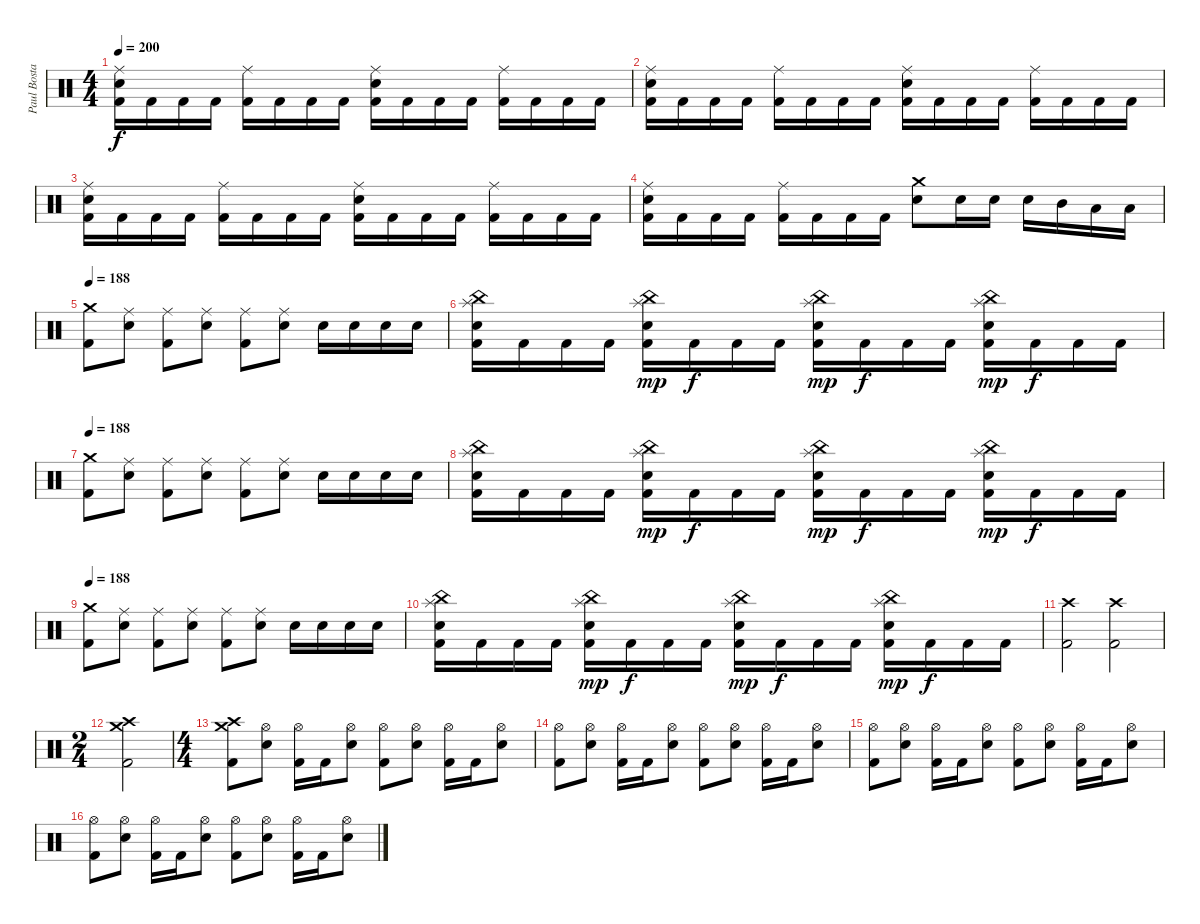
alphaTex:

\track ("Paul Bostaph" "Paul Bosta") {instrument percussion}
\staff {score}
\articulation defaults
\ts (4 4)
\tempo 200
\clef neutral
\ks c
("Electric Snare (hit)" "Kick (hit) 2" "Ride (middle)").16{dy f} "Kick (hit) 2".16 "Kick (hit) 2".16 "Kick (hit) 2".16 ("Kick (hit) 2" "Ride (middle)").16 "Kick (hit) 2".16 "Kick (hit) 2".16 "Kick (hit) 2".16 ("Electric Snare (hit)" "Kick (hit) 2" "Ride (middle)").16 "Kick (hit) 2".16 "Kick (hit) 2".16 "Kick (hit) 2".16 ("Kick (hit) 2" "Ride (middle)").16 "Kick (hit) 2".16 "Kick (hit) 2".16 "Kick (hit) 2".16 |
("Electric Snare (hit)" "Kick (hit) 2" "Ride (middle)").16 "Kick (hit) 2".16 "Kick (hit) 2".16 "Kick (hit) 2".16 ("Kick (hit) 2" "Ride (middle)").16 "Kick (hit) 2".16 "Kick (hit) 2".16 "Kick (hit) 2".16 ("Electric Snare (hit)" "Kick (hit) 2" "Ride (middle)").16 "Kick (hit) 2".16 "Kick (hit) 2".16 "Kick (hit) 2".16 ("Kick (hit) 2" "Ride (middle)").16 "Kick (hit) 2".16 "Kick (hit) 2".16 "Kick (hit) 2".16 |
("Electric Snare (hit)" "Kick (hit) 2" "Ride (middle)").16 "Kick (hit) 2".16 "Kick (hit) 2".16 "Kick (hit) 2".16 ("Kick (hit) 2" "Ride (middle)").16 "Kick (hit) 2".16 "Kick (hit) 2".16 "Kick (hit) 2".16 ("Electric Snare (hit)" "Kick (hit) 2" "Ride (middle)").16 "Kick (hit) 2".16 "Kick (hit) 2".16 "Kick (hit) 2".16 ("Kick (hit) 2" "Ride (middle)").16 "Kick (hit) 2".16 "Kick (hit) 2".16 "Kick (hit) 2".16 |
("Electric Snare (hit)" "Kick (hit) 2" "Ride (middle)").16 "Kick (hit) 2".16 "Kick (hit) 2".16 "Kick (hit) 2".16 ("Kick (hit) 2" "Ride (middle)").16 "Kick (hit) 2".16 "Kick (hit) 2".16 "Kick (hit) 2".16 ("Electric Snare (hit)" "Crash medium (hit)").8 "Electric Snare (hit)".16 "Electric Snare (hit)".16 "Electric Snare (hit)".16 "Mid Tom (hit)".16 "Low Tom (hit)".16 "Low Tom (hit)".16 |
\tempo 188
("Crash medium (hit)" "Kick (hit) 2").8 ("Ride (middle)" "Electric Snare (hit)").8 ("Ride (middle)" "Kick (hit) 2").8 ("Ride (middle)" "Electric Snare (hit)").8 ("Ride (middle)" "Kick (hit) 2").8 ("Ride (middle)" "Electric Snare (hit)").8 "Electric Snare (hit)".16 "Electric Snare (hit)".16 "Electric Snare (hit)".16 "Electric Snare (hit)".16 |
("Electric Snare (hit)" "Kick (hit) 2" "Splash (hit)" "China (hit)").16 "Kick (hit) 2".16 "Kick (hit) 2".16 "Kick (hit) 2".16 ("Kick (hit) 2" "Electric Snare (hit)" "Splash (hit)" "China (hit)").16{dy mp} "Kick (hit) 2".16{dy f} "Kick (hit) 2".16 "Kick (hit) 2".16 ("Electric Snare (hit)" "Kick (hit) 2" "Splash (hit)" "China (hit)").16{dy mp} "Kick (hit) 2".16{dy f} "Kick (hit) 2".16 "Kick (hit) 2".16 ("Kick (hit) 2" "Electric Snare (hit)" "Splash (hit)" "China (hit)").16{dy mp} "Kick (hit) 2".16{dy f} "Kick (hit) 2".16 "Kick (hit) 2".16 |
\tempo 188
("Crash medium (hit)" "Kick (hit) 2").8 ("Ride (middle)" "Electric Snare (hit)").8 ("Ride (middle)" "Kick (hit) 2").8 ("Ride (middle)" "Electric Snare (hit)").8 ("Ride (middle)" "Kick (hit) 2").8 ("Ride (middle)" "Electric Snare (hit)").8 "Electric Snare (hit)".16 "Electric Snare (hit)".16 "Electric Snare (hit)".16 "Electric Snare (hit)".16 |
("Electric Snare (hit)" "Kick (hit) 2" "Splash (hit)" "China (hit)").16 "Kick (hit) 2".16 "Kick (hit) 2".16 "Kick (hit) 2".16 ("Kick (hit) 2" "Electric Snare (hit)" "Splash (hit)" "China (hit)").16{dy mp} "Kick (hit) 2".16{dy f} "Kick (hit) 2".16 "Kick (hit) 2".16 ("Electric Snare (hit)" "Kick (hit) 2" "Splash (hit)" "China (hit)").16{dy mp} "Kick (hit) 2".16{dy f} "Kick (hit) 2".16 "Kick (hit) 2".16 ("Kick (hit) 2" "Electric Snare (hit)" "Splash (hit)" "China (hit)").16{dy mp} "Kick (hit) 2".16{dy f} "Kick (hit) 2".16 "Kick (hit) 2".16 |
\tempo 188
("Crash medium (hit)" "Kick (hit) 2").8 ("Ride (middle)" "Electric Snare (hit)").8 ("Ride (middle)" "Kick (hit) 2").8 ("Ride (middle)" "Electric Snare (hit)").8 ("Ride (middle)" "Kick (hit) 2").8 ("Ride (middle)" "Electric Snare (hit)").8 "Electric Snare (hit)".16 "Electric Snare (hit)".16 "Electric Snare (hit)".16 "Electric Snare (hit)".16 |
("Electric Snare (hit)" "Kick (hit) 2" "Splash (hit)" "China (hit)").16 "Kick (hit) 2".16 "Kick (hit) 2".16 "Kick (hit) 2".16 ("Kick (hit) 2" "Electric Snare (hit)" "Splash (hit)" "China (hit)").16{dy mp} "Kick (hit) 2".16{dy f} "Kick (hit) 2".16 "Kick (hit) 2".16 ("Electric Snare (hit)" "Kick (hit) 2" "Splash (hit)" "China (hit)").16{dy mp} "Kick (hit) 2".16{dy f} "Kick (hit) 2".16 "Kick (hit) 2".16 ("Kick (hit) 2" "Electric Snare (hit)" "Splash (hit)" "China (hit)").16{dy mp} "Kick (hit) 2".16{dy f} "Kick (hit) 2".16 "Kick (hit) 2".16 |
("Crash high (hit)" "Kick (hit) 2").2 ("Crash high (hit)" "Kick (hit) 2").2 |
\ts (2 4)
("Crash medium (hit)" "Crash high (hit)" "Kick (hit) 2").2 |
\ts (4 4)
("Crash medium (hit)" "Crash high (hit)" "Kick (hit) 2").8 ("Hi-Hat (open)" "Electric Snare (hit)").8 ("Hi-Hat (open)" "Kick (hit) 2").16 "Kick (hit) 2".16 ("Hi-Hat (open)" "Electric Snare (hit)").8 ("Hi-Hat (open)" "Kick (hit) 2").8 ("Hi-Hat (open)" "Electric Snare (hit)").8 ("Hi-Hat (open)" "Kick (hit) 2").16 "Kick (hit) 2".16 ("Hi-Hat (open)" "Electric Snare (hit)").8 |
("Hi-Hat (open)" "Kick (hit) 2").8 ("Hi-Hat (open)" "Electric Snare (hit)").8 ("Hi-Hat (open)" "Kick (hit) 2").16 "Kick (hit) 2".16 ("Hi-Hat (open)" "Electric Snare (hit)").8 ("Hi-Hat (open)" "Kick (hit) 2").8 ("Hi-Hat (open)" "Electric Snare (hit)").8 ("Hi-Hat (open)" "Kick (hit) 2").16 "Kick (hit) 2".16 ("Hi-Hat (open)" "Electric Snare (hit)").8 |
("Hi-Hat (open)" "Kick (hit) 2").8 ("Hi-Hat (open)" "Electric Snare (hit)").8 ("Hi-Hat (open)" "Kick (hit) 2").16 "Kick (hit) 2".16 ("Hi-Hat (open)" "Electric Snare (hit)").8 ("Hi-Hat (open)" "Kick (hit) 2").8 ("Hi-Hat (open)" "Electric Snare (hit)").8 ("Hi-Hat (open)" "Kick (hit) 2").16 "Kick (hit) 2".16 ("Hi-Hat (open)" "Electric Snare (hit)").8 |
("Hi-Hat (open)" "Kick (hit) 2").8 ("Hi-Hat (open)" "Electric Snare (hit)").8 ("Hi-Hat (open)" "Kick (hit) 2").16 "Kick (hit) 2".16 ("Hi-Hat (open)" "Electric Snare (hit)").8 ("Hi-Hat (open)" "Kick (hit) 2").8 ("Hi-Hat (open)" "Electric Snare (hit)").8 ("Hi-Hat (open)" "Kick (hit) 2").16 "Kick (hit) 2".16 ("Hi-Hat (open)" "Electric Snare (hit)").8
